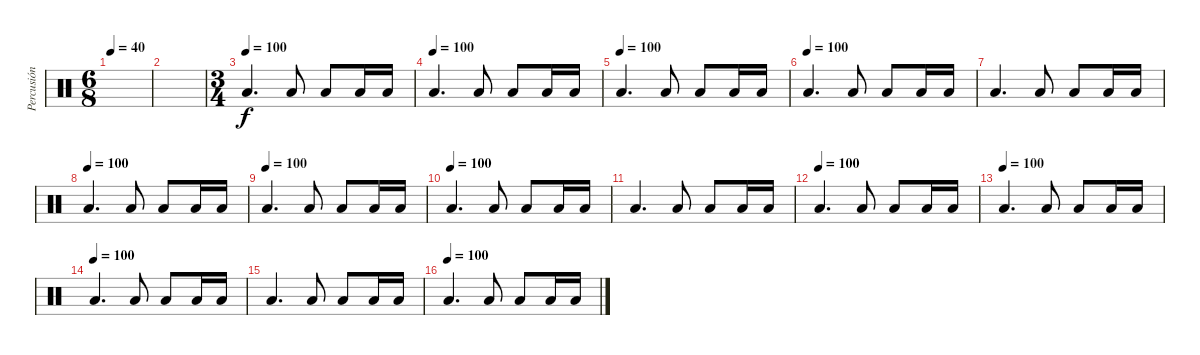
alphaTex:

\track ("Percusión" "Percusión") {instrument percussion}
\staff {score}
\articulation defaults
\ts (6 8)
\tempo 40
\clef neutral
\ks c
|
|
\ts (3 4)
\tempo (100)
"Low Floor Tom (hit)".4{d} "Low Floor Tom (hit)".8 "Low Floor Tom (hit)".8 "Low Floor Tom (hit)".16 "Low Floor Tom (hit)".16 |
\tempo (100)
"Low Floor Tom (hit)".4{d} "Low Floor Tom (hit)".8 "Low Floor Tom (hit)".8 "Low Floor Tom (hit)".16 "Low Floor Tom (hit)".16 |
\tempo (100)
"Low Floor Tom (hit)".4{d} "Low Floor Tom (hit)".8 "Low Floor Tom (hit)".8 "Low Floor Tom (hit)".16 "Low Floor Tom (hit)".16 |
\tempo (100)
"Low Floor Tom (hit)".4{d} "Low Floor Tom (hit)".8 "Low Floor Tom (hit)".8 "Low Floor Tom (hit)".16 "Low Floor Tom (hit)".16 |
"Low Floor Tom (hit)".4{d} "Low Floor Tom (hit)".8 "Low Floor Tom (hit)".8 "Low Floor Tom (hit)".16 "Low Floor Tom (hit)".16 |
\tempo (100)
"Low Floor Tom (hit)".4{d} "Low Floor Tom (hit)".8 "Low Floor Tom (hit)".8 "Low Floor Tom (hit)".16 "Low Floor Tom (hit)".16 |
\tempo (100)
"Low Floor Tom (hit)".4{d} "Low Floor Tom (hit)".8 "Low Floor Tom (hit)".8 "Low Floor Tom (hit)".16 "Low Floor Tom (hit)".16 |
\tempo (100)
"Low Floor Tom (hit)".4{d} "Low Floor Tom (hit)".8 "Low Floor Tom (hit)".8 "Low Floor Tom (hit)".16 "Low Floor Tom (hit)".16 |
"Low Floor Tom (hit)".4{d} "Low Floor Tom (hit)".8 "Low Floor Tom (hit)".8 "Low Floor Tom (hit)".16 "Low Floor Tom (hit)".16 |
\tempo (100)
"Low Floor Tom (hit)".4{d} "Low Floor Tom (hit)".8 "Low Floor Tom (hit)".8 "Low Floor Tom (hit)".16 "Low Floor Tom (hit)".16 |
\tempo (100)
"Low Floor Tom (hit)".4{d} "Low Floor Tom (hit)".8 "Low Floor Tom (hit)".8 "Low Floor Tom (hit)".16 "Low Floor Tom (hit)".16 |
\tempo (100)
"Low Floor Tom (hit)".4{d} "Low Floor Tom (hit)".8 "Low Floor Tom (hit)".8 "Low Floor Tom (hit)".16 "Low Floor Tom (hit)".16 |
"Low Floor Tom (hit)".4{d} "Low Floor Tom (hit)".8 "Low Floor Tom (hit)".8 "Low Floor Tom (hit)".16 "Low Floor Tom (hit)".16 |
\tempo (100)
"Low Floor Tom (hit)".4{d} "Low Floor Tom (hit)".8 "Low Floor Tom (hit)".8 "Low Floor Tom (hit)".16 "Low Floor Tom (hit)".16
